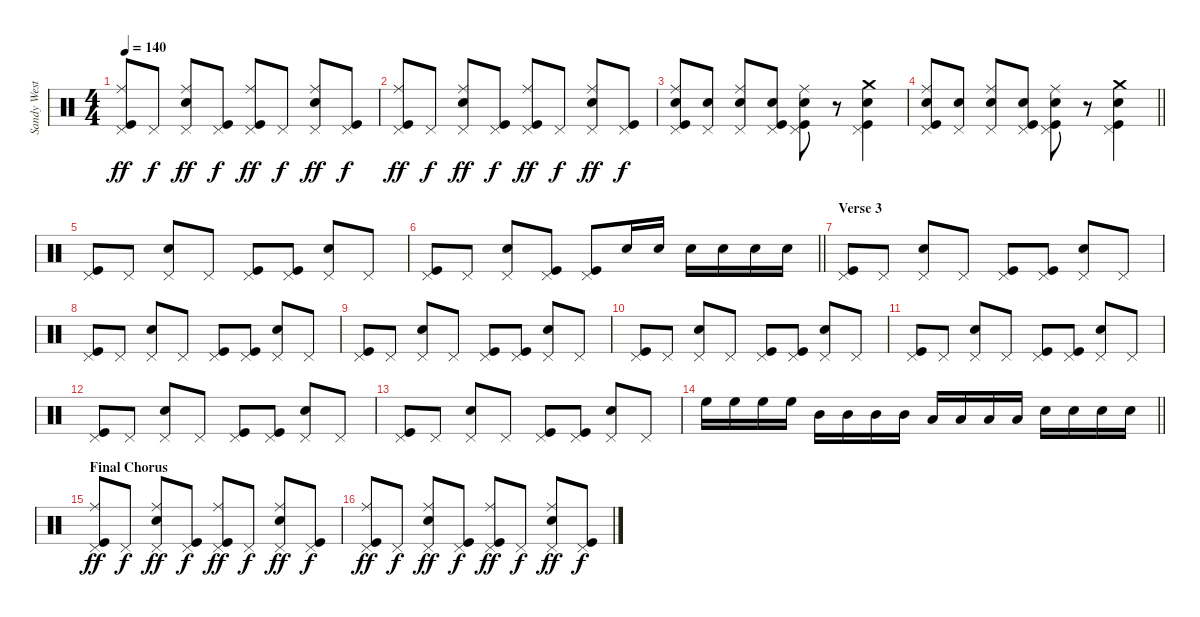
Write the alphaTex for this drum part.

\track ("Sandy West" "Sandy West") {instrument percussion}
\staff {score}
\articulation defaults
\ts (4 4)
\tempo 140
\clef neutral
\ks c
("Ride (middle)" "Pedal Hi-Hat (hit)" "Kick (hit)").8{dy ff} "Pedal Hi-Hat (hit)".8{dy f} ("Ride (middle)" "Snare (hit) 2" "Pedal Hi-Hat (hit)").8{dy ff} ("Pedal Hi-Hat (hit)" "Kick (hit)").8{dy f} ("Ride (middle)" "Pedal Hi-Hat (hit)" "Kick (hit)").8{dy ff} "Pedal Hi-Hat (hit)".8{dy f} ("Ride (middle)" "Snare (hit) 2" "Pedal Hi-Hat (hit)").8{dy ff} ("Pedal Hi-Hat (hit)" "Kick (hit)").8{dy f} |
("Ride (middle)" "Pedal Hi-Hat (hit)" "Kick (hit)").8{dy ff} "Pedal Hi-Hat (hit)".8{dy f} ("Ride (middle)" "Snare (hit) 2" "Pedal Hi-Hat (hit)").8{dy ff} ("Pedal Hi-Hat (hit)" "Kick (hit)").8{dy f} ("Ride (middle)" "Pedal Hi-Hat (hit)" "Kick (hit)").8{dy ff} "Pedal Hi-Hat (hit)".8{dy f} ("Ride (middle)" "Snare (hit) 2" "Pedal Hi-Hat (hit)").8{dy ff} ("Pedal Hi-Hat (hit)" "Kick (hit)").8{dy f} |
("Ride (middle)" "Pedal Hi-Hat (hit)" "Snare (hit) 2" "Kick (hit)").8 ("Pedal Hi-Hat (hit)" "Snare (hit) 2").8 ("Ride (middle)" "Pedal Hi-Hat (hit)" "Snare (hit) 2").8 ("Pedal Hi-Hat (hit)" "Snare (hit) 2" "Kick (hit)").8 ("Ride (middle)" "Pedal Hi-Hat (hit)" "Snare (hit) 2" "Kick (hit)").8 r.8 ("Crash medium (hit)" "Pedal Hi-Hat (hit)" "Snare (hit) 2" "Kick (hit)").4 |
\barLineRight lightlight
("Ride (middle)" "Pedal Hi-Hat (hit)" "Snare (hit) 2" "Kick (hit)").8 ("Pedal Hi-Hat (hit)" "Snare (hit) 2").8 ("Ride (middle)" "Pedal Hi-Hat (hit)" "Snare (hit) 2").8 ("Pedal Hi-Hat (hit)" "Snare (hit) 2" "Kick (hit)").8 ("Ride (middle)" "Pedal Hi-Hat (hit)" "Snare (hit) 2" "Kick (hit)").8 r.8 ("Crash medium (hit)" "Pedal Hi-Hat (hit)" "Snare (hit) 2" "Kick (hit)").4 |
\section ("" "")
("Pedal Hi-Hat (hit)" "Kick (hit)").8 "Pedal Hi-Hat (hit)".8 ("Snare (hit) 2" "Pedal Hi-Hat (hit)").8 "Pedal Hi-Hat (hit)".8 ("Pedal Hi-Hat (hit)" "Kick (hit)").8 ("Pedal Hi-Hat (hit)" "Kick (hit)").8 ("Snare (hit) 2" "Pedal Hi-Hat (hit)").8 "Pedal Hi-Hat (hit)".8 |
\barLineRight lightlight
("Pedal Hi-Hat (hit)" "Kick (hit)").8 "Pedal Hi-Hat (hit)".8 ("Snare (hit) 2" "Pedal Hi-Hat (hit)").8 ("Pedal Hi-Hat (hit)" "Kick (hit)").8 ("Pedal Hi-Hat (hit)" "Kick (hit)").8 "Snare (hit) 2".16 "Snare (hit) 2".16 "Snare (hit) 2".16 "Snare (hit) 2".16 "Snare (hit) 2".16 "Snare (hit) 2".16 |
\section ("" "Verse 3")
("Pedal Hi-Hat (hit)" "Kick (hit)").8 "Pedal Hi-Hat (hit)".8 ("Snare (hit) 2" "Pedal Hi-Hat (hit)").8 "Pedal Hi-Hat (hit)".8 ("Pedal Hi-Hat (hit)" "Kick (hit)").8 ("Pedal Hi-Hat (hit)" "Kick (hit)").8 ("Snare (hit) 2" "Pedal Hi-Hat (hit)").8 "Pedal Hi-Hat (hit)".8 |
("Pedal Hi-Hat (hit)" "Kick (hit)").8 "Pedal Hi-Hat (hit)".8 ("Snare (hit) 2" "Pedal Hi-Hat (hit)").8 "Pedal Hi-Hat (hit)".8 ("Pedal Hi-Hat (hit)" "Kick (hit)").8 ("Pedal Hi-Hat (hit)" "Kick (hit)").8 ("Snare (hit) 2" "Pedal Hi-Hat (hit)").8 "Pedal Hi-Hat (hit)".8 |
("Pedal Hi-Hat (hit)" "Kick (hit)").8 "Pedal Hi-Hat (hit)".8 ("Snare (hit) 2" "Pedal Hi-Hat (hit)").8 "Pedal Hi-Hat (hit)".8 ("Pedal Hi-Hat (hit)" "Kick (hit)").8 ("Pedal Hi-Hat (hit)" "Kick (hit)").8 ("Snare (hit) 2" "Pedal Hi-Hat (hit)").8 "Pedal Hi-Hat (hit)".8 |
("Pedal Hi-Hat (hit)" "Kick (hit)").8 "Pedal Hi-Hat (hit)".8 ("Snare (hit) 2" "Pedal Hi-Hat (hit)").8 "Pedal Hi-Hat (hit)".8 ("Pedal Hi-Hat (hit)" "Kick (hit)").8 ("Pedal Hi-Hat (hit)" "Kick (hit)").8 ("Snare (hit) 2" "Pedal Hi-Hat (hit)").8 "Pedal Hi-Hat (hit)".8 |
("Pedal Hi-Hat (hit)" "Kick (hit)").8 "Pedal Hi-Hat (hit)".8 ("Snare (hit) 2" "Pedal Hi-Hat (hit)").8 "Pedal Hi-Hat (hit)".8 ("Pedal Hi-Hat (hit)" "Kick (hit)").8 ("Pedal Hi-Hat (hit)" "Kick (hit)").8 ("Snare (hit) 2" "Pedal Hi-Hat (hit)").8 "Pedal Hi-Hat (hit)".8 |
("Pedal Hi-Hat (hit)" "Kick (hit)").8 "Pedal Hi-Hat (hit)".8 ("Snare (hit) 2" "Pedal Hi-Hat (hit)").8 "Pedal Hi-Hat (hit)".8 ("Pedal Hi-Hat (hit)" "Kick (hit)").8 ("Pedal Hi-Hat (hit)" "Kick (hit)").8 ("Snare (hit) 2" "Pedal Hi-Hat (hit)").8 "Pedal Hi-Hat (hit)".8 |
("Pedal Hi-Hat (hit)" "Kick (hit)").8 "Pedal Hi-Hat (hit)".8 ("Snare (hit) 2" "Pedal Hi-Hat (hit)").8 "Pedal Hi-Hat (hit)".8 ("Pedal Hi-Hat (hit)" "Kick (hit)").8 ("Pedal Hi-Hat (hit)" "Kick (hit)").8 ("Snare (hit) 2" "Pedal Hi-Hat (hit)").8 "Pedal Hi-Hat (hit)".8 |
\barLineRight lightlight "High Floor Tom (hit)".16 "High Floor Tom (hit)".16 "High Floor Tom (hit)".16 "High Floor Tom (hit)".16 "Mid Tom (hit)".16 "Mid Tom (hit)".16 "Mid Tom (hit)".16 "Mid Tom (hit)".16 "Low Tom (hit)".16 "Low Tom (hit)".16 "Low Tom (hit)".16 "Low Tom (hit)".16 "Snare (hit) 2".16 "Snare (hit) 2".16 "Snare (hit) 2".16 "Snare (hit) 2".16
|
\section ("" "Final Chorus")
("Ride (middle)" "Pedal Hi-Hat (hit)" "Kick (hit)").8{dy ff} "Pedal Hi-Hat (hit)".8{dy f} ("Ride (middle)" "Snare (hit) 2" "Pedal Hi-Hat (hit)").8{dy ff} ("Pedal Hi-Hat (hit)" "Kick (hit)").8{dy f} ("Ride (middle)" "Pedal Hi-Hat (hit)" "Kick (hit)").8{dy ff} "Pedal Hi-Hat (hit)".8{dy f} ("Ride (middle)" "Snare (hit) 2" "Pedal Hi-Hat (hit)").8{dy ff} ("Pedal Hi-Hat (hit)" "Kick (hit)").8{dy f} |
("Ride (middle)" "Pedal Hi-Hat (hit)" "Kick (hit)").8{dy ff} "Pedal Hi-Hat (hit)".8{dy f} ("Ride (middle)" "Snare (hit) 2" "Pedal Hi-Hat (hit)").8{dy ff} ("Pedal Hi-Hat (hit)" "Kick (hit)").8{dy f} ("Ride (middle)" "Pedal Hi-Hat (hit)" "Kick (hit)").8{dy ff} "Pedal Hi-Hat (hit)".8{dy f} ("Ride (middle)" "Snare (hit) 2" "Pedal Hi-Hat (hit)").8{dy ff} ("Pedal Hi-Hat (hit)" "Kick (hit)").8{dy f}
